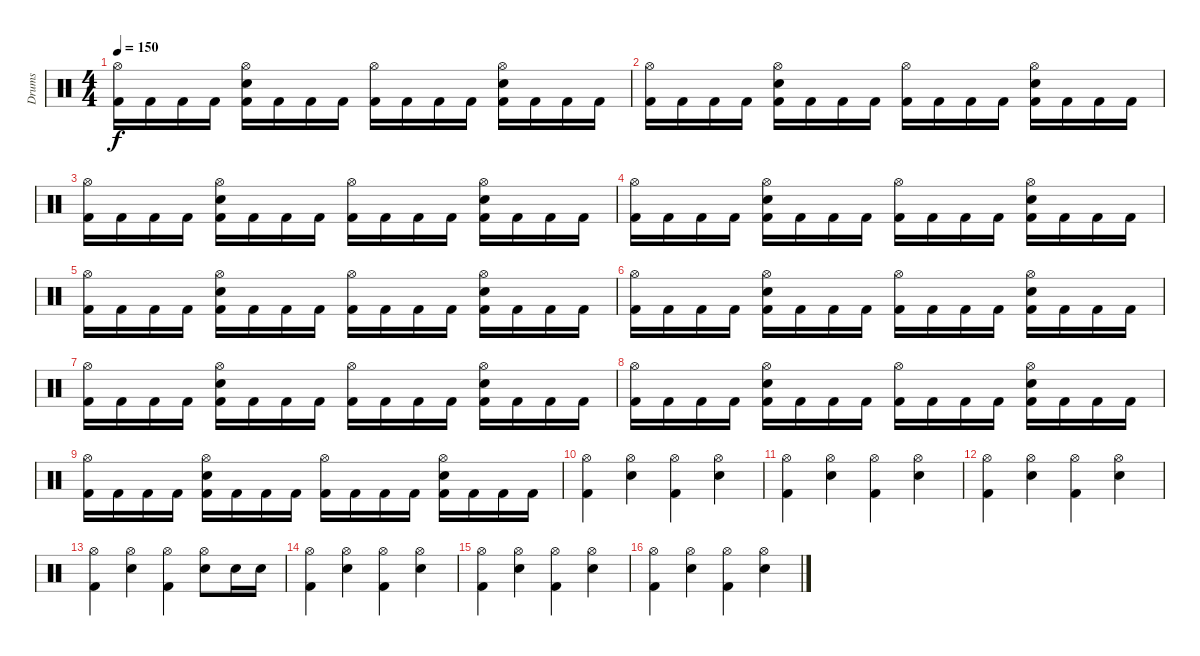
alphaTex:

\track ("Drums" "Drums") {instrument percussion}
\staff {score}
\articulation defaults
\ts (4 4)
\tempo 150
\clef neutral
\ks c
("Hi-Hat (open)" "Kick (hit) 2").16{dy f} "Kick (hit) 2".16 "Kick (hit) 2".16 "Kick (hit) 2".16 ("Snare (hit) 2" "Hi-Hat (open)" "Kick (hit) 2").16 "Kick (hit) 2".16 "Kick (hit) 2".16 "Kick (hit) 2".16 ("Hi-Hat (open)" "Kick (hit) 2").16 "Kick (hit) 2".16 "Kick (hit) 2".16 "Kick (hit) 2".16 ("Snare (hit) 2" "Hi-Hat (open)" "Kick (hit) 2").16 "Kick (hit) 2".16 "Kick (hit) 2".16 "Kick (hit) 2".16 |
("Hi-Hat (open)" "Kick (hit) 2").16 "Kick (hit) 2".16 "Kick (hit) 2".16 "Kick (hit) 2".16 ("Snare (hit) 2" "Hi-Hat (open)" "Kick (hit) 2").16 "Kick (hit) 2".16 "Kick (hit) 2".16 "Kick (hit) 2".16 ("Hi-Hat (open)" "Kick (hit) 2").16 "Kick (hit) 2".16 "Kick (hit) 2".16 "Kick (hit) 2".16 ("Snare (hit) 2" "Hi-Hat (open)" "Kick (hit) 2").16 "Kick (hit) 2".16 "Kick (hit) 2".16 "Kick (hit) 2".16 |
("Hi-Hat (open)" "Kick (hit) 2").16 "Kick (hit) 2".16 "Kick (hit) 2".16 "Kick (hit) 2".16 ("Snare (hit) 2" "Hi-Hat (open)" "Kick (hit) 2").16 "Kick (hit) 2".16 "Kick (hit) 2".16 "Kick (hit) 2".16 ("Hi-Hat (open)" "Kick (hit) 2").16 "Kick (hit) 2".16 "Kick (hit) 2".16 "Kick (hit) 2".16 ("Snare (hit) 2" "Hi-Hat (open)" "Kick (hit) 2").16 "Kick (hit) 2".16 "Kick (hit) 2".16 "Kick (hit) 2".16 |
("Hi-Hat (open)" "Kick (hit) 2").16 "Kick (hit) 2".16 "Kick (hit) 2".16 "Kick (hit) 2".16 ("Snare (hit) 2" "Hi-Hat (open)" "Kick (hit) 2").16 "Kick (hit) 2".16 "Kick (hit) 2".16 "Kick (hit) 2".16 ("Hi-Hat (open)" "Kick (hit) 2").16 "Kick (hit) 2".16 "Kick (hit) 2".16 "Kick (hit) 2".16 ("Snare (hit) 2" "Hi-Hat (open)" "Kick (hit) 2").16 "Kick (hit) 2".16 "Kick (hit) 2".16 "Kick (hit) 2".16 |
("Hi-Hat (open)" "Kick (hit) 2").16 "Kick (hit) 2".16 "Kick (hit) 2".16 "Kick (hit) 2".16 ("Snare (hit) 2" "Hi-Hat (open)" "Kick (hit) 2").16 "Kick (hit) 2".16 "Kick (hit) 2".16 "Kick (hit) 2".16 ("Hi-Hat (open)" "Kick (hit) 2").16 "Kick (hit) 2".16 "Kick (hit) 2".16 "Kick (hit) 2".16 ("Snare (hit) 2" "Hi-Hat (open)" "Kick (hit) 2").16 "Kick (hit) 2".16 "Kick (hit) 2".16 "Kick (hit) 2".16 |
("Hi-Hat (open)" "Kick (hit) 2").16 "Kick (hit) 2".16 "Kick (hit) 2".16 "Kick (hit) 2".16 ("Snare (hit) 2" "Hi-Hat (open)" "Kick (hit) 2").16 "Kick (hit) 2".16 "Kick (hit) 2".16 "Kick (hit) 2".16 ("Hi-Hat (open)" "Kick (hit) 2").16 "Kick (hit) 2".16 "Kick (hit) 2".16 "Kick (hit) 2".16 ("Snare (hit) 2" "Hi-Hat (open)" "Kick (hit) 2").16 "Kick (hit) 2".16 "Kick (hit) 2".16 "Kick (hit) 2".16 |
("Hi-Hat (open)" "Kick (hit) 2").16 "Kick (hit) 2".16 "Kick (hit) 2".16 "Kick (hit) 2".16 ("Snare (hit) 2" "Hi-Hat (open)" "Kick (hit) 2").16 "Kick (hit) 2".16 "Kick (hit) 2".16 "Kick (hit) 2".16 ("Hi-Hat (open)" "Kick (hit) 2").16 "Kick (hit) 2".16 "Kick (hit) 2".16 "Kick (hit) 2".16 ("Snare (hit) 2" "Hi-Hat (open)" "Kick (hit) 2").16 "Kick (hit) 2".16 "Kick (hit) 2".16 "Kick (hit) 2".16 |
("Hi-Hat (open)" "Kick (hit) 2").16 "Kick (hit) 2".16 "Kick (hit) 2".16 "Kick (hit) 2".16 ("Snare (hit) 2" "Hi-Hat (open)" "Kick (hit) 2").16 "Kick (hit) 2".16 "Kick (hit) 2".16 "Kick (hit) 2".16 ("Hi-Hat (open)" "Kick (hit) 2").16 "Kick (hit) 2".16 "Kick (hit) 2".16 "Kick (hit) 2".16 ("Snare (hit) 2" "Hi-Hat (open)" "Kick (hit) 2").16 "Kick (hit) 2".16 "Kick (hit) 2".16 "Kick (hit) 2".16 |
("Hi-Hat (open)" "Kick (hit) 2").16 "Kick (hit) 2".16 "Kick (hit) 2".16 "Kick (hit) 2".16 ("Snare (hit) 2" "Hi-Hat (open)" "Kick (hit) 2").16 "Kick (hit) 2".16 "Kick (hit) 2".16 "Kick (hit) 2".16 ("Hi-Hat (open)" "Kick (hit) 2").16 "Kick (hit) 2".16 "Kick (hit) 2".16 "Kick (hit) 2".16 ("Snare (hit) 2" "Hi-Hat (open)" "Kick (hit) 2").16 "Kick (hit) 2".16 "Kick (hit) 2".16 "Kick (hit) 2".16 |
("Hi-Hat (open)" "Kick (hit) 2").4 ("Hi-Hat (open)" "Snare (hit) 2").4 ("Hi-Hat (open)" "Kick (hit) 2").4 ("Hi-Hat (open)" "Snare (hit) 2").4 |
("Hi-Hat (open)" "Kick (hit) 2").4 ("Hi-Hat (open)" "Snare (hit) 2").4 ("Hi-Hat (open)" "Kick (hit) 2").4 ("Hi-Hat (open)" "Snare (hit) 2").4 |
("Hi-Hat (open)" "Kick (hit) 2").4 ("Hi-Hat (open)" "Snare (hit) 2").4 ("Hi-Hat (open)" "Kick (hit) 2").4 ("Hi-Hat (open)" "Snare (hit) 2").4 |
("Hi-Hat (open)" "Kick (hit) 2").4 ("Hi-Hat (open)" "Snare (hit) 2").4 ("Hi-Hat (open)" "Kick (hit) 2").4 ("Hi-Hat (open)" "Snare (hit) 2").8 "Snare (hit) 2".16 "Snare (hit) 2".16 |
("Hi-Hat (open)" "Kick (hit) 2").4 ("Hi-Hat (open)" "Snare (hit) 2").4 ("Hi-Hat (open)" "Kick (hit) 2").4 ("Hi-Hat (open)" "Snare (hit) 2").4 |
("Hi-Hat (open)" "Kick (hit) 2").4 ("Hi-Hat (open)" "Snare (hit) 2").4 ("Hi-Hat (open)" "Kick (hit) 2").4 ("Hi-Hat (open)" "Snare (hit) 2").4 |
("Hi-Hat (open)" "Kick (hit) 2").4 ("Hi-Hat (open)" "Snare (hit) 2").4 ("Hi-Hat (open)" "Kick (hit) 2").4 ("Hi-Hat (open)" "Snare (hit) 2").4
